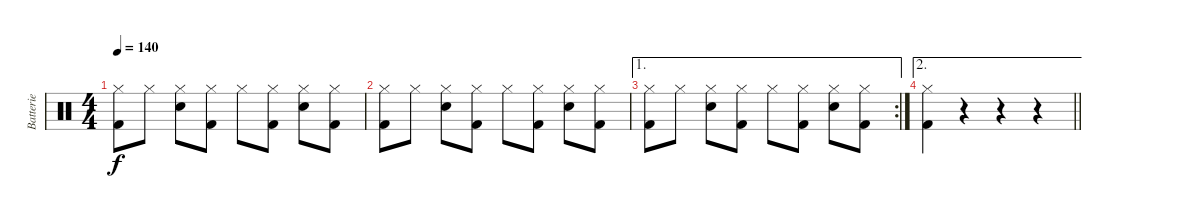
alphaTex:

\track ("Batterie" "Batterie") {instrument percussion}
\staff {score}
\articulation defaults
\ts (4 4)
\tempo 140
\clef neutral
\ks c
("Hi-Hat (closed)" "Kick (hit) 2").8{dy f} "Hi-Hat (closed)".8 ("Hi-Hat (closed)" "Snare (hit) 2").8 ("Hi-Hat (closed)" "Kick (hit) 2").8 "Hi-Hat (closed)".8 ("Hi-Hat (closed)" "Kick (hit) 2").8 ("Hi-Hat (closed)" "Snare (hit) 2").8 ("Hi-Hat (closed)" "Kick (hit) 2").8 |
("Hi-Hat (closed)" "Kick (hit) 2").8 "Hi-Hat (closed)".8 ("Hi-Hat (closed)" "Snare (hit) 2").8 ("Hi-Hat (closed)" "Kick (hit) 2").8 "Hi-Hat (closed)".8 ("Hi-Hat (closed)" "Kick (hit) 2").8 ("Hi-Hat (closed)" "Snare (hit) 2").8 ("Hi-Hat (closed)" "Kick (hit) 2").8 |
\ae 1
\rc 2
("Hi-Hat (closed)" "Kick (hit) 2").8 "Hi-Hat (closed)".8 ("Hi-Hat (closed)" "Snare (hit) 2").8 ("Hi-Hat (closed)" "Kick (hit) 2").8 "Hi-Hat (closed)".8 ("Hi-Hat (closed)" "Kick (hit) 2").8 ("Hi-Hat (closed)" "Snare (hit) 2").8 ("Hi-Hat (closed)" "Kick (hit) 2").8 |
\ae 2
\barLineRight lightlight
("Hi-Hat (closed)" "Kick (hit) 2").4 r.4 r.4 r.4
